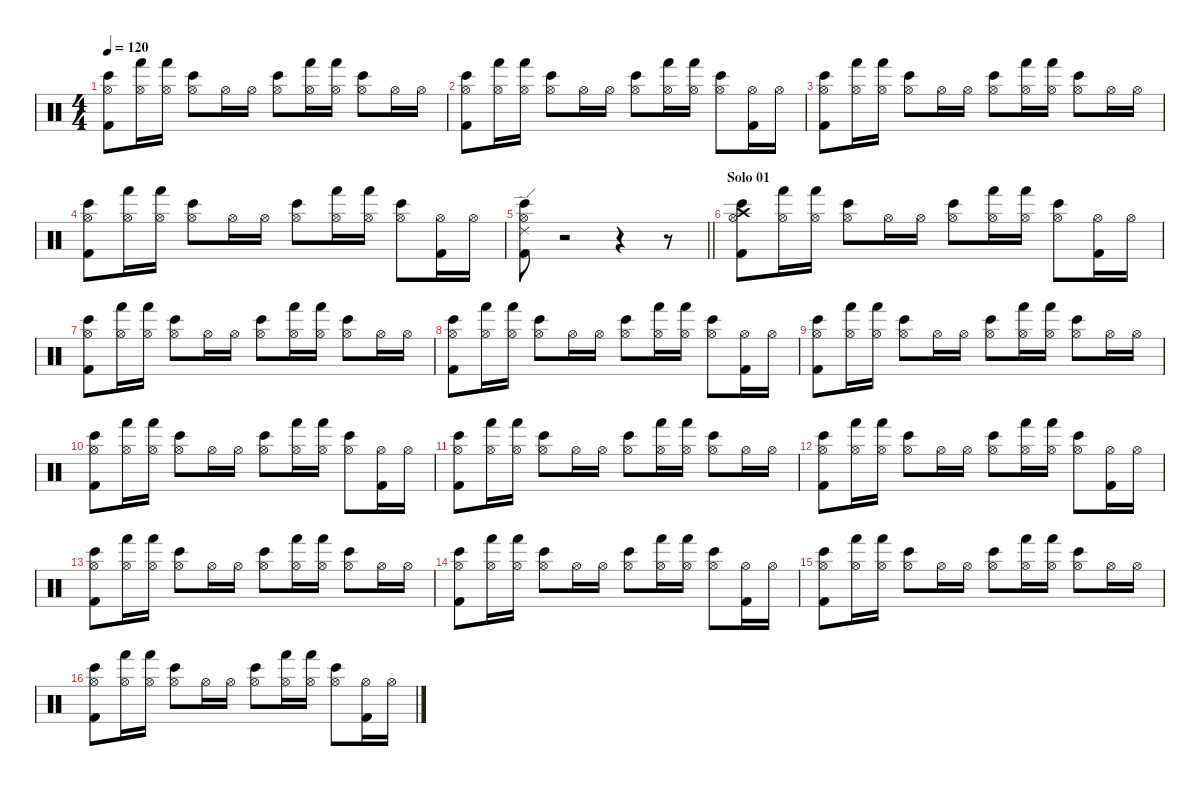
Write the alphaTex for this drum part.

\defaultSystemsLayout 4
\hideDynamics
\bracketExtendMode nobrackets
\singleTrackTrackNamePolicy hidden
\multiTrackTrackNamePolicy hidden
\firstSystemTrackNameMode fullname
\firstSystemTrackNameOrientation horizontal
\otherSystemsTrackNameOrientation horizontal
\track ("Bateria" "drm.") {instrument percussion}
\staff {score}
\articulation defaults
\ts (4 4)
\tempo 120
\clef neutral
\ks c
("Hi-Hat (open)" "Kick (hit) 2" "Bongo High (hit)").8{dy mf beam Down} ("Hi-Hat (open)" "Hand (hit)").16{dy mp beam Down} ("Hi-Hat (open)" "Hand (hit)").16{beam Down} ("Hi-Hat (open)" "Bongo High (hit)").8{dy f beam Down} "Hi-Hat (open)".16{dy mp beam Down} "Hi-Hat (open)".16{beam Down} ("Hi-Hat (open)" "Bongo High (hit)").8{dy mf beam Down} ("Hi-Hat (open)" "Hand (hit)").16{dy mp beam Down} ("Hi-Hat (open)" "Hand (hit)").16{beam Down} ("Hi-Hat (open)" "Bongo High (hit)").8{dy f beam Down} "Hi-Hat (open)".16{dy mp beam Down} "Hi-Hat (open)".16{beam Down} |
("Hi-Hat (open)" "Kick (hit) 2" "Bongo High (hit)").8{dy mf beam Down} ("Hi-Hat (open)" "Hand (hit)").16{dy mp beam Down} ("Hi-Hat (open)" "Hand (hit)").16{beam Down} ("Hi-Hat (open)" "Bongo High (hit)").8{dy f beam Down} "Hi-Hat (open)".16{dy mp beam Down} "Hi-Hat (open)".16{beam Down} ("Hi-Hat (open)" "Bongo High (hit)").8{dy mf beam Down} ("Hi-Hat (open)" "Hand (hit)").16{dy mp beam Down} ("Hi-Hat (open)" "Hand (hit)").16{beam Down} ("Hi-Hat (open)" "Bongo High (hit)").8{dy f beam Down} ("Hi-Hat (open)" "Kick (hit) 2").16{dy mp beam Down} "Hi-Hat (open)".16{beam Down} |
("Hi-Hat (open)" "Kick (hit) 2" "Bongo High (hit)").8{dy mf beam Down} ("Hi-Hat (open)" "Hand (hit)").16{dy mp beam Down} ("Hi-Hat (open)" "Hand (hit)").16{beam Down} ("Hi-Hat (open)" "Bongo High (hit)").8{dy f beam Down} "Hi-Hat (open)".16{dy mp beam Down} "Hi-Hat (open)".16{beam Down} ("Hi-Hat (open)" "Bongo High (hit)").8{dy mf beam Down} ("Hi-Hat (open)" "Hand (hit)").16{dy mp beam Down} ("Hi-Hat (open)" "Hand (hit)").16{beam Down} ("Hi-Hat (open)" "Bongo High (hit)").8{dy f beam Down} "Hi-Hat (open)".16{dy mp beam Down} "Hi-Hat (open)".16{beam Down} |
("Hi-Hat (open)" "Kick (hit) 2" "Bongo High (hit)").8{dy mf beam Down} ("Hi-Hat (open)" "Hand (hit)").16{dy mp beam Down} ("Hi-Hat (open)" "Hand (hit)").16{beam Down} ("Hi-Hat (open)" "Bongo High (hit)").8{dy f beam Down} "Hi-Hat (open)".16{dy mp beam Down} "Hi-Hat (open)".16{beam Down} ("Hi-Hat (open)" "Bongo High (hit)").8{dy mf beam Down} ("Hi-Hat (open)" "Hand (hit)").16{dy mp beam Down} ("Hi-Hat (open)" "Hand (hit)").16{beam Down} ("Hi-Hat (open)" "Bongo High (hit)").8{dy f beam Down} ("Hi-Hat (open)" "Kick (hit) 2").16{dy mp beam Down} "Hi-Hat (open)".16{beam Down} |
\barLineRight lightlight
("Hi-Hat (open)" "Kick (hit) 2" "Bongo High (hit)" "Ride (edge) 2").8{dy f beam Down} r.2{beam Down} r.4{beam Down} r.8{beam Down} |
\section ("" "Solo 01")
("Hi-Hat (open)" "Kick (hit) 2" "Bongo High (hit)" "Crash high (hit)").8{dy mf beam Down} ("Hi-Hat (open)" "Hand (hit)").16{dy mp beam Down} ("Hi-Hat (open)" "Hand (hit)").16{beam Down} ("Hi-Hat (open)" "Bongo High (hit)").8{dy f beam Down} "Hi-Hat (open)".16{dy mp beam Down} "Hi-Hat (open)".16{beam Down} ("Hi-Hat (open)" "Bongo High (hit)").8{dy mf beam Down} ("Hi-Hat (open)" "Hand (hit)").16{dy mp beam Down} ("Hi-Hat (open)" "Hand (hit)").16{beam Down} ("Hi-Hat (open)" "Bongo High (hit)").8{dy f beam Down} ("Hi-Hat (open)" "Kick (hit) 2").16{dy mp beam Down} "Hi-Hat (open)".16{beam Down} |
("Hi-Hat (open)" "Kick (hit) 2" "Bongo High (hit)").8{dy mf beam Down} ("Hi-Hat (open)" "Hand (hit)").16{dy mp beam Down} ("Hi-Hat (open)" "Hand (hit)").16{beam Down} ("Hi-Hat (open)" "Bongo High (hit)").8{dy f beam Down} "Hi-Hat (open)".16{dy mp beam Down} "Hi-Hat (open)".16{beam Down} ("Hi-Hat (open)" "Bongo High (hit)").8{dy mf beam Down} ("Hi-Hat (open)" "Hand (hit)").16{dy mp beam Down} ("Hi-Hat (open)" "Hand (hit)").16{beam Down} ("Hi-Hat (open)" "Bongo High (hit)").8{dy f beam Down} "Hi-Hat (open)".16{dy mp beam Down} "Hi-Hat (open)".16{beam Down} |
("Hi-Hat (open)" "Kick (hit) 2" "Bongo High (hit)").8{dy mf beam Down} ("Hi-Hat (open)" "Hand (hit)").16{dy mp beam Down} ("Hi-Hat (open)" "Hand (hit)").16{beam Down} ("Hi-Hat (open)" "Bongo High (hit)").8{dy f beam Down} "Hi-Hat (open)".16{dy mp beam Down} "Hi-Hat (open)".16{beam Down} ("Hi-Hat (open)" "Bongo High (hit)").8{dy mf beam Down} ("Hi-Hat (open)" "Hand (hit)").16{dy mp beam Down} ("Hi-Hat (open)" "Hand (hit)").16{beam Down} ("Hi-Hat (open)" "Bongo High (hit)").8{dy f beam Down} ("Hi-Hat (open)" "Kick (hit) 2").16{dy mp beam Down} "Hi-Hat (open)".16{beam Down} |
("Hi-Hat (open)" "Kick (hit) 2" "Bongo High (hit)").8{dy mf beam Down} ("Hi-Hat (open)" "Hand (hit)").16{dy mp beam Down} ("Hi-Hat (open)" "Hand (hit)").16{beam Down} ("Hi-Hat (open)" "Bongo High (hit)").8{dy f beam Down} "Hi-Hat (open)".16{dy mp beam Down} "Hi-Hat (open)".16{beam Down} ("Hi-Hat (open)" "Bongo High (hit)").8{dy mf beam Down} ("Hi-Hat (open)" "Hand (hit)").16{dy mp beam Down} ("Hi-Hat (open)" "Hand (hit)").16{beam Down} ("Hi-Hat (open)" "Bongo High (hit)").8{dy f beam Down} "Hi-Hat (open)".16{dy mp beam Down} "Hi-Hat (open)".16{beam Down} |
("Hi-Hat (open)" "Kick (hit) 2" "Bongo High (hit)").8{dy mf beam Down} ("Hi-Hat (open)" "Hand (hit)").16{dy mp beam Down} ("Hi-Hat (open)" "Hand (hit)").16{beam Down} ("Hi-Hat (open)" "Bongo High (hit)").8{dy f beam Down} "Hi-Hat (open)".16{dy mp beam Down} "Hi-Hat (open)".16{beam Down} ("Hi-Hat (open)" "Bongo High (hit)").8{dy mf beam Down} ("Hi-Hat (open)" "Hand (hit)").16{dy mp beam Down} ("Hi-Hat (open)" "Hand (hit)").16{beam Down} ("Hi-Hat (open)" "Bongo High (hit)").8{dy f beam Down} ("Hi-Hat (open)" "Kick (hit) 2").16{dy mp beam Down} "Hi-Hat (open)".16{beam Down} |
("Hi-Hat (open)" "Kick (hit) 2" "Bongo High (hit)").8{dy mf beam Down} ("Hi-Hat (open)" "Hand (hit)").16{dy mp beam Down} ("Hi-Hat (open)" "Hand (hit)").16{beam Down} ("Hi-Hat (open)" "Bongo High (hit)").8{dy f beam Down} "Hi-Hat (open)".16{dy mp beam Down} "Hi-Hat (open)".16{beam Down} ("Hi-Hat (open)" "Bongo High (hit)").8{dy mf beam Down} ("Hi-Hat (open)" "Hand (hit)").16{dy mp beam Down} ("Hi-Hat (open)" "Hand (hit)").16{beam Down} ("Hi-Hat (open)" "Bongo High (hit)").8{dy f beam Down} "Hi-Hat (open)".16{dy mp beam Down} "Hi-Hat (open)".16{beam Down} |
("Hi-Hat (open)" "Kick (hit) 2" "Bongo High (hit)").8{dy mf beam Down} ("Hi-Hat (open)" "Hand (hit)").16{dy mp beam Down} ("Hi-Hat (open)" "Hand (hit)").16{beam Down} ("Hi-Hat (open)" "Bongo High (hit)").8{dy f beam Down} "Hi-Hat (open)".16{dy mp beam Down} "Hi-Hat (open)".16{beam Down} ("Hi-Hat (open)" "Bongo High (hit)").8{dy mf beam Down} ("Hi-Hat (open)" "Hand (hit)").16{dy mp beam Down} ("Hi-Hat (open)" "Hand (hit)").16{beam Down} ("Hi-Hat (open)" "Bongo High (hit)").8{dy f beam Down} ("Hi-Hat (open)" "Kick (hit) 2").16{dy mp beam Down} "Hi-Hat (open)".16{beam Down} |
("Hi-Hat (open)" "Kick (hit) 2" "Bongo High (hit)").8{dy mf beam Down} ("Hi-Hat (open)" "Hand (hit)").16{dy mp beam Down} ("Hi-Hat (open)" "Hand (hit)").16{beam Down} ("Hi-Hat (open)" "Bongo High (hit)").8{dy f beam Down} "Hi-Hat (open)".16{dy mp beam Down} "Hi-Hat (open)".16{beam Down} ("Hi-Hat (open)" "Bongo High (hit)").8{dy mf beam Down} ("Hi-Hat (open)" "Hand (hit)").16{dy mp beam Down} ("Hi-Hat (open)" "Hand (hit)").16{beam Down} ("Hi-Hat (open)" "Bongo High (hit)").8{dy f beam Down} "Hi-Hat (open)".16{dy mp beam Down} "Hi-Hat (open)".16{beam Down} |
("Hi-Hat (open)" "Kick (hit) 2" "Bongo High (hit)").8{dy mf beam Down} ("Hi-Hat (open)" "Hand (hit)").16{dy mp beam Down} ("Hi-Hat (open)" "Hand (hit)").16{beam Down} ("Hi-Hat (open)" "Bongo High (hit)").8{dy f beam Down} "Hi-Hat (open)".16{dy mp beam Down} "Hi-Hat (open)".16{beam Down} ("Hi-Hat (open)" "Bongo High (hit)").8{dy mf beam Down} ("Hi-Hat (open)" "Hand (hit)").16{dy mp beam Down} ("Hi-Hat (open)" "Hand (hit)").16{beam Down} ("Hi-Hat (open)" "Bongo High (hit)").8{dy f beam Down} ("Hi-Hat (open)" "Kick (hit) 2").16{dy mp beam Down} "Hi-Hat (open)".16{beam Down} |
("Hi-Hat (open)" "Kick (hit) 2" "Bongo High (hit)").8{dy mf beam Down} ("Hi-Hat (open)" "Hand (hit)").16{dy mp beam Down} ("Hi-Hat (open)" "Hand (hit)").16{beam Down} ("Hi-Hat (open)" "Bongo High (hit)").8{dy f beam Down} "Hi-Hat (open)".16{dy mp beam Down} "Hi-Hat (open)".16{beam Down} ("Hi-Hat (open)" "Bongo High (hit)").8{dy mf beam Down} ("Hi-Hat (open)" "Hand (hit)").16{dy mp beam Down} ("Hi-Hat (open)" "Hand (hit)").16{beam Down} ("Hi-Hat (open)" "Bongo High (hit)").8{dy f beam Down} "Hi-Hat (open)".16{dy mp beam Down} "Hi-Hat (open)".16{beam Down} |
("Hi-Hat (open)" "Kick (hit) 2" "Bongo High (hit)").8{dy mf beam Down} ("Hi-Hat (open)" "Hand (hit)").16{dy mp beam Down} ("Hi-Hat (open)" "Hand (hit)").16{beam Down} ("Hi-Hat (open)" "Bongo High (hit)").8{dy f beam Down} "Hi-Hat (open)".16{dy mp beam Down} "Hi-Hat (open)".16{beam Down} ("Hi-Hat (open)" "Bongo High (hit)").8{dy mf beam Down} ("Hi-Hat (open)" "Hand (hit)").16{dy mp beam Down} ("Hi-Hat (open)" "Hand (hit)").16{beam Down} ("Hi-Hat (open)" "Bongo High (hit)").8{dy f beam Down} ("Hi-Hat (open)" "Kick (hit) 2").16{dy mp beam Down} "Hi-Hat (open)".16{beam Down}
